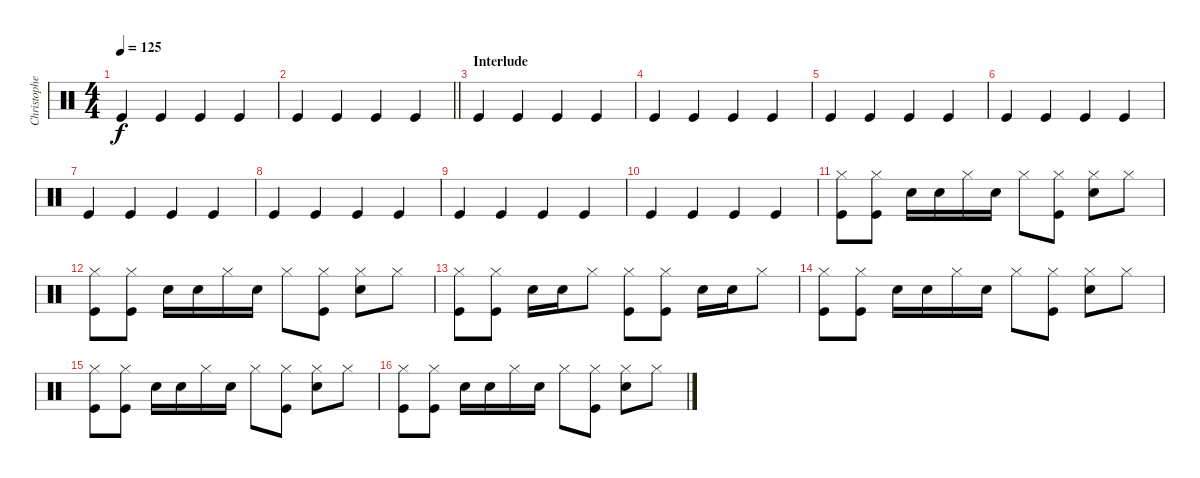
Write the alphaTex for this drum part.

\track ("Christopher - Drums" "Christophe") {instrument percussion}
\staff {score}
\articulation defaults
\ts (4 4)
\tempo 125
\clef neutral
\ks c "Kick (hit)".4{dy f} "Kick (hit)".4 "Kick (hit)".4 "Kick (hit)".4
|
\barLineRight lightlight "Kick (hit)".4 "Kick (hit)".4 "Kick (hit)".4 "Kick (hit)".4
|
\section ("" "Interlude")
"Kick (hit)".4 "Kick (hit)".4 "Kick (hit)".4 "Kick (hit)".4 |
"Kick (hit)".4 "Kick (hit)".4 "Kick (hit)".4 "Kick (hit)".4 |
"Kick (hit)".4 "Kick (hit)".4 "Kick (hit)".4 "Kick (hit)".4 |
"Kick (hit)".4 "Kick (hit)".4 "Kick (hit)".4 "Kick (hit)".4 |
"Kick (hit)".4 "Kick (hit)".4 "Kick (hit)".4 "Kick (hit)".4 |
"Kick (hit)".4 "Kick (hit)".4 "Kick (hit)".4 "Kick (hit)".4 |
"Kick (hit)".4 "Kick (hit)".4 "Kick (hit)".4 "Kick (hit)".4 |
"Kick (hit)".4 "Kick (hit)".4 "Kick (hit)".4 "Kick (hit)".4 |
("Hi-Hat (closed)" "Kick (hit)").8 ("Hi-Hat (closed)" "Kick (hit)").8 "Snare (hit) 2".16 "Snare (hit) 2".16 "Hi-Hat (closed)".16 "Snare (hit) 2".16 "Hi-Hat (closed)".8 ("Hi-Hat (closed)" "Kick (hit)").8 ("Hi-Hat (closed)" "Snare (hit) 2").8 "Hi-Hat (closed)".8 |
("Hi-Hat (closed)" "Kick (hit)").8 ("Hi-Hat (closed)" "Kick (hit)").8 "Snare (hit) 2".16 "Snare (hit) 2".16 "Hi-Hat (closed)".16 "Snare (hit) 2".16 "Hi-Hat (closed)".8 ("Hi-Hat (closed)" "Kick (hit)").8 ("Hi-Hat (closed)" "Snare (hit) 2").8 "Hi-Hat (closed)".8 |
("Hi-Hat (closed)" "Kick (hit)").8 ("Hi-Hat (closed)" "Kick (hit)").8 "Snare (hit) 2".16 "Snare (hit) 2".16 "Hi-Hat (closed)".8 ("Hi-Hat (closed)" "Kick (hit)").8 ("Hi-Hat (closed)" "Kick (hit)").8 "Snare (hit) 2".16 "Snare (hit) 2".16 "Hi-Hat (closed)".8 |
("Hi-Hat (closed)" "Kick (hit)").8 ("Hi-Hat (closed)" "Kick (hit)").8 "Snare (hit) 2".16 "Snare (hit) 2".16 "Hi-Hat (closed)".16 "Snare (hit) 2".16 "Hi-Hat (closed)".8 ("Hi-Hat (closed)" "Kick (hit)").8 ("Hi-Hat (closed)" "Snare (hit) 2").8 "Hi-Hat (closed)".8 |
("Hi-Hat (closed)" "Kick (hit)").8 ("Hi-Hat (closed)" "Kick (hit)").8 "Snare (hit) 2".16 "Snare (hit) 2".16 "Hi-Hat (closed)".16 "Snare (hit) 2".16 "Hi-Hat (closed)".8 ("Hi-Hat (closed)" "Kick (hit)").8 ("Hi-Hat (closed)" "Snare (hit) 2").8 "Hi-Hat (closed)".8 |
("Hi-Hat (closed)" "Kick (hit)").8 ("Hi-Hat (closed)" "Kick (hit)").8 "Snare (hit) 2".16 "Snare (hit) 2".16 "Hi-Hat (closed)".16 "Snare (hit) 2".16 "Hi-Hat (closed)".8 ("Hi-Hat (closed)" "Kick (hit)").8 ("Hi-Hat (closed)" "Snare (hit) 2").8 "Hi-Hat (closed)".8
